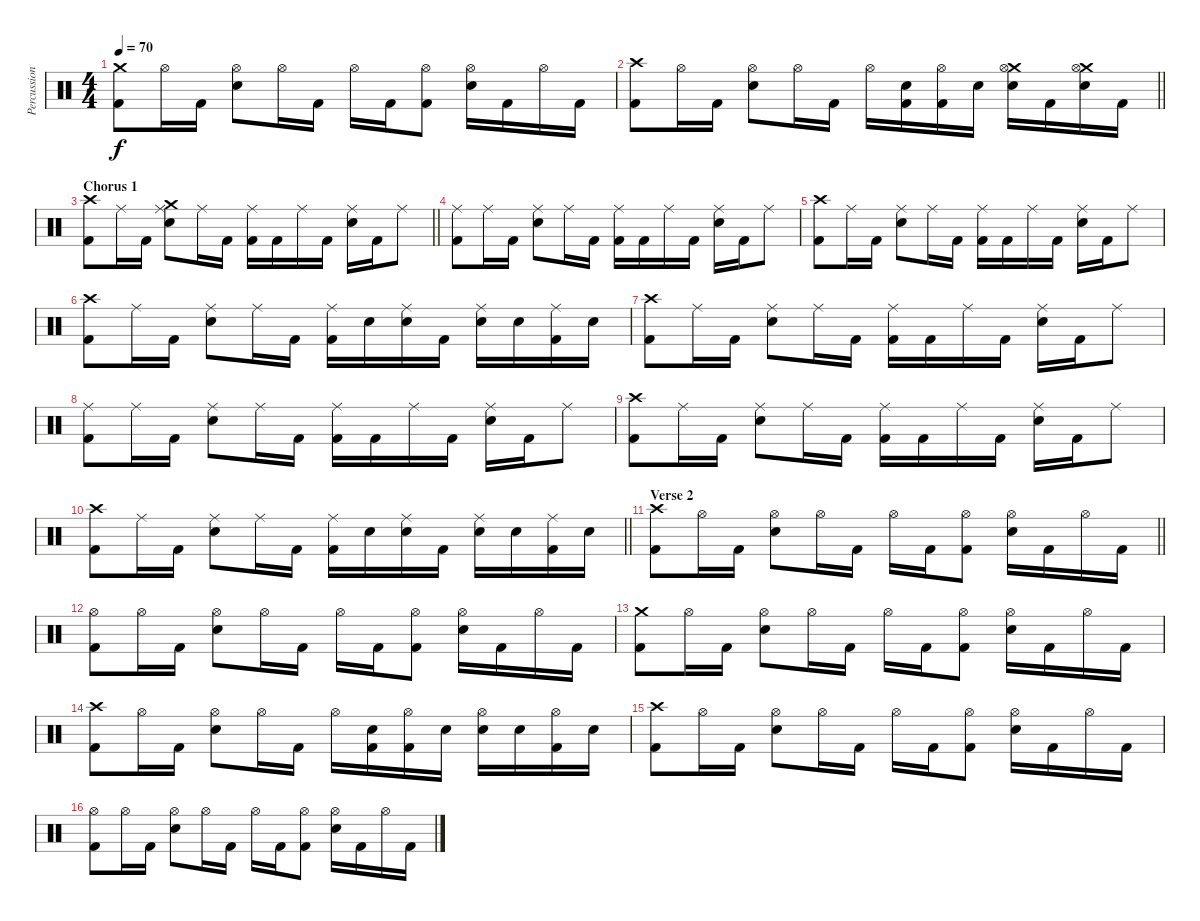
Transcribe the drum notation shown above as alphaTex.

\track ("Percussion" "Percussion") {instrument percussion}
\staff {score}
\articulation defaults
\ts (4 4)
\tempo 70
\clef neutral
\ks c
("Crash medium (hit)" "Kick (hit) 2").8{dy f} "Hi-Hat (open)".16 "Kick (hit) 2".16 ("Hi-Hat (open)" "Snare (hit) 2").8 "Hi-Hat (open)".16 "Kick (hit) 2".16 "Hi-Hat (open)".16 "Kick (hit) 2".16 ("Hi-Hat (open)" "Kick (hit) 2").8 ("Hi-Hat (open)" "Snare (hit) 2").16 "Kick (hit) 2".16 "Hi-Hat (open)".16 "Kick (hit) 2".16 |
\barLineRight lightlight
("Crash high (hit)" "Kick (hit) 2").8 "Hi-Hat (open)".16 "Kick (hit) 2".16 ("Hi-Hat (open)" "Snare (hit) 2").8 "Hi-Hat (open)".16 "Kick (hit) 2".16 "Hi-Hat (open)".16 ("Snare (hit) 2" "Kick (hit) 2").16 ("Hi-Hat (open)" "Kick (hit) 2").16 "Snare (hit) 2".16 ("Crash medium (hit)" "Hi-Hat (open)" "Snare (hit) 2").16 "Kick (hit) 2".16 ("Crash medium (hit)" "Hi-Hat (open)" "Snare (hit) 2").16 "Kick (hit) 2".16 |
\section ("" "Chorus 1")
\barLineRight lightlight
("Crash high (hit)" "Kick (hit) 2").8 "Ride (middle)".16 "Kick (hit) 2".16 ("Crash medium (hit)" "Ride (middle)" "Snare (hit) 2").8 "Ride (middle)".16 "Kick (hit) 2".16 ("Ride (middle)" "Kick (hit) 2").16 "Kick (hit) 2".16 "Ride (middle)".16 "Kick (hit) 2".16 ("Ride (middle)" "Snare (hit) 2").16 "Kick (hit) 2".16 "Ride (middle)".8 |
("Ride (middle)" "Kick (hit) 2").8 "Ride (middle)".16 "Kick (hit) 2".16 ("Ride (middle)" "Snare (hit) 2").8 "Ride (middle)".16 "Kick (hit) 2".16 ("Ride (middle)" "Kick (hit) 2").16 "Kick (hit) 2".16 "Ride (middle)".16 "Kick (hit) 2".16 ("Ride (middle)" "Snare (hit) 2").16 "Kick (hit) 2".16 "Ride (middle)".8 |
("Crash high (hit)" "Kick (hit) 2").8 "Ride (middle)".16 "Kick (hit) 2".16 ("Ride (middle)" "Snare (hit) 2").8 "Ride (middle)".16 "Kick (hit) 2".16 ("Ride (middle)" "Kick (hit) 2").16 "Kick (hit) 2".16 "Ride (middle)".16 "Kick (hit) 2".16 ("Ride (middle)" "Snare (hit) 2").16 "Kick (hit) 2".16 "Ride (middle)".8 |
("Crash high (hit)" "Kick (hit) 2").8 "Ride (middle)".16 "Kick (hit) 2".16 ("Ride (middle)" "Snare (hit) 2").8 "Ride (middle)".16 "Kick (hit) 2".16 ("Ride (middle)" "Kick (hit) 2").16 "Snare (hit) 2".16 ("Ride (middle)" "Snare (hit) 2").16 "Kick (hit) 2".16 ("Ride (middle)" "Snare (hit) 2").16 "Snare (hit) 2".16 ("Ride (middle)" "Kick (hit) 2").16 "Snare (hit) 2".16 |
("Crash high (hit)" "Kick (hit) 2").8 "Ride (middle)".16 "Kick (hit) 2".16 ("Ride (middle)" "Snare (hit) 2").8 "Ride (middle)".16 "Kick (hit) 2".16 ("Ride (middle)" "Kick (hit) 2").16 "Kick (hit) 2".16 "Ride (middle)".16 "Kick (hit) 2".16 ("Ride (middle)" "Snare (hit) 2").16 "Kick (hit) 2".16 "Ride (middle)".8 |
("Ride (middle)" "Kick (hit) 2").8 "Ride (middle)".16 "Kick (hit) 2".16 ("Ride (middle)" "Snare (hit) 2").8 "Ride (middle)".16 "Kick (hit) 2".16 ("Ride (middle)" "Kick (hit) 2").16 "Kick (hit) 2".16 "Ride (middle)".16 "Kick (hit) 2".16 ("Ride (middle)" "Snare (hit) 2").16 "Kick (hit) 2".16 "Ride (middle)".8 |
("Crash high (hit)" "Kick (hit) 2").8 "Ride (middle)".16 "Kick (hit) 2".16 ("Ride (middle)" "Snare (hit) 2").8 "Ride (middle)".16 "Kick (hit) 2".16 ("Ride (middle)" "Kick (hit) 2").16 "Kick (hit) 2".16 "Ride (middle)".16 "Kick (hit) 2".16 ("Ride (middle)" "Snare (hit) 2").16 "Kick (hit) 2".16 "Ride (middle)".8 |
\barLineRight lightlight
("Crash high (hit)" "Kick (hit) 2").8 "Ride (middle)".16 "Kick (hit) 2".16 ("Ride (middle)" "Snare (hit) 2").8 "Ride (middle)".16 "Kick (hit) 2".16 ("Ride (middle)" "Kick (hit) 2").16 "Snare (hit) 2".16 ("Ride (middle)" "Snare (hit) 2").16 "Kick (hit) 2".16 ("Ride (middle)" "Snare (hit) 2").16 "Snare (hit) 2".16 ("Ride (middle)" "Kick (hit) 2").16 "Snare (hit) 2".16 |
\section ("" "Verse 2")
\barLineRight lightlight
("Crash high (hit)" "Kick (hit) 2").8 "Hi-Hat (open)".16 "Kick (hit) 2".16 ("Hi-Hat (open)" "Snare (hit) 2").8 "Hi-Hat (open)".16 "Kick (hit) 2".16 "Hi-Hat (open)".16 "Kick (hit) 2".16 ("Hi-Hat (open)" "Kick (hit) 2").8 ("Hi-Hat (open)" "Snare (hit) 2").16 "Kick (hit) 2".16 "Hi-Hat (open)".16 "Kick (hit) 2".16 |
("Hi-Hat (open)" "Kick (hit) 2").8 "Hi-Hat (open)".16 "Kick (hit) 2".16 ("Hi-Hat (open)" "Snare (hit) 2").8 "Hi-Hat (open)".16 "Kick (hit) 2".16 "Hi-Hat (open)".16 "Kick (hit) 2".16 ("Hi-Hat (open)" "Kick (hit) 2").8 ("Hi-Hat (open)" "Snare (hit) 2").16 "Kick (hit) 2".16 "Hi-Hat (open)".16 "Kick (hit) 2".16 |
("Crash medium (hit)" "Kick (hit) 2").8 "Hi-Hat (open)".16 "Kick (hit) 2".16 ("Hi-Hat (open)" "Snare (hit) 2").8 "Hi-Hat (open)".16 "Kick (hit) 2".16 "Hi-Hat (open)".16 "Kick (hit) 2".16 ("Hi-Hat (open)" "Kick (hit) 2").8 ("Hi-Hat (open)" "Snare (hit) 2").16 "Kick (hit) 2".16 "Hi-Hat (open)".16 "Kick (hit) 2".16 |
("Crash high (hit)" "Kick (hit) 2").8 "Hi-Hat (open)".16 "Kick (hit) 2".16 ("Hi-Hat (open)" "Snare (hit) 2").8 "Hi-Hat (open)".16 "Kick (hit) 2".16 "Hi-Hat (open)".16 ("Snare (hit) 2" "Kick (hit) 2").16 ("Hi-Hat (open)" "Kick (hit) 2").16 "Snare (hit) 2".16 ("Hi-Hat (open)" "Snare (hit) 2").16 "Snare (hit) 2".16 ("Hi-Hat (open)" "Kick (hit) 2").16 "Snare (hit) 2".16 |
("Crash high (hit)" "Kick (hit) 2").8 "Hi-Hat (open)".16 "Kick (hit) 2".16 ("Hi-Hat (open)" "Snare (hit) 2").8 "Hi-Hat (open)".16 "Kick (hit) 2".16 "Hi-Hat (open)".16 "Kick (hit) 2".16 ("Hi-Hat (open)" "Kick (hit) 2").8 ("Hi-Hat (open)" "Snare (hit) 2").16 "Kick (hit) 2".16 "Hi-Hat (open)".16 "Kick (hit) 2".16 |
("Hi-Hat (open)" "Kick (hit) 2").8 "Hi-Hat (open)".16 "Kick (hit) 2".16 ("Hi-Hat (open)" "Snare (hit) 2").8 "Hi-Hat (open)".16 "Kick (hit) 2".16 "Hi-Hat (open)".16 "Kick (hit) 2".16 ("Hi-Hat (open)" "Kick (hit) 2").8 ("Hi-Hat (open)" "Snare (hit) 2").16 "Kick (hit) 2".16 "Hi-Hat (open)".16 "Kick (hit) 2".16
